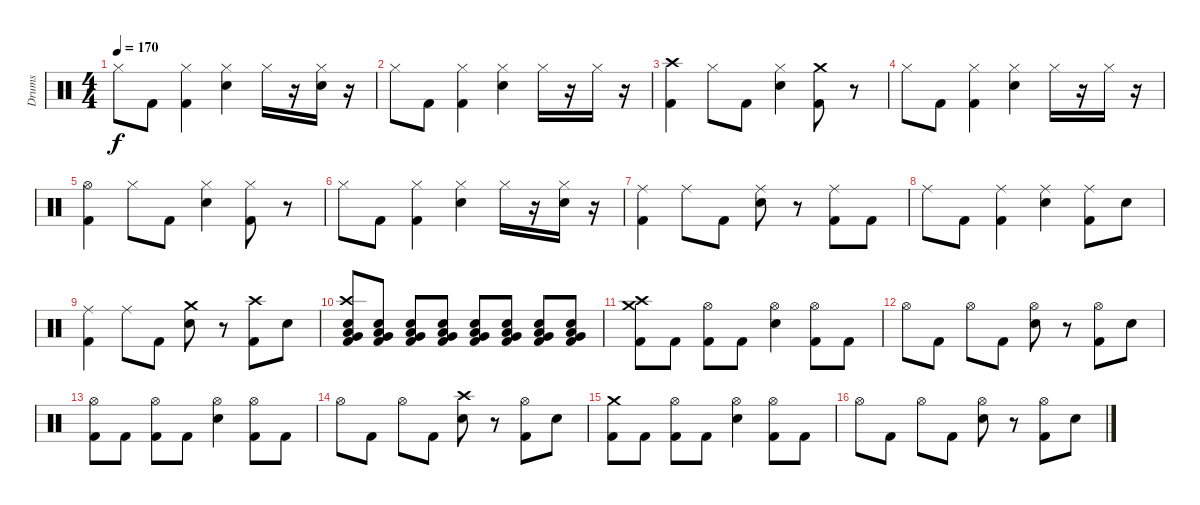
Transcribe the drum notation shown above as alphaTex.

\track ("Drums" "Drums") {instrument percussion}
\staff {score}
\articulation defaults
\ts (4 4)
\tempo 170
\clef neutral
\ks c "Hi-Hat (closed)".8{dy f} "Kick (hit) 2".8
("Hi-Hat (closed)" "Kick (hit) 2").4 ("Hi-Hat (closed)" "Snare (hit) 2").4 "Hi-Hat (closed)".16 r.16 ("Hi-Hat (closed)" "Snare (hit) 2").16 r.16 |
"Hi-Hat (closed)".8 "Kick (hit) 2".8 ("Hi-Hat (closed)" "Kick (hit) 2").4 ("Hi-Hat (closed)" "Snare (hit) 2").4 "Hi-Hat (closed)".16 r.16 "Hi-Hat (closed)".16 r.16 |
("Crash high (hit)" "Kick (hit) 2").4 "Hi-Hat (closed)".8 "Kick (hit) 2".8 ("Hi-Hat (closed)" "Snare (hit) 2").4 ("Crash medium (hit)" "Kick (hit) 2").8 r.8 |
"Hi-Hat (closed)".8 "Kick (hit) 2".8 ("Hi-Hat (closed)" "Kick (hit) 2").4 ("Hi-Hat (closed)" "Snare (hit) 2").4 "Hi-Hat (closed)".16 r.16 "Hi-Hat (closed)".16 r.16 |
("Hi-Hat (open)" "Kick (hit) 2").4 "Hi-Hat (closed)".8 "Kick (hit) 2".8 ("Hi-Hat (closed)" "Snare (hit) 2").4 ("Hi-Hat (closed)" "Kick (hit) 2").8 r.8 |
"Hi-Hat (closed)".8 "Kick (hit) 2".8 ("Hi-Hat (closed)" "Kick (hit) 2").4 ("Hi-Hat (closed)" "Snare (hit) 2").4 "Hi-Hat (closed)".16 r.16 ("Hi-Hat (closed)" "Snare (hit) 2").16 r.16 |
("Ride (middle)" "Kick (hit) 2").4 "Ride (middle)".8 "Kick (hit) 2".8 ("Ride (middle)" "Snare (hit) 2").8 r.8 ("Ride (middle)" "Kick (hit) 2").8 "Kick (hit) 2".8 |
"Ride (middle)".8 "Kick (hit) 2".8 ("Ride (middle)" "Kick (hit) 2").4 ("Ride (middle)" "Snare (hit) 2").4 ("Ride (middle)" "Kick (hit) 2").8 "Snare (hit) 2".8 |
("Ride (middle)" "Kick (hit) 2").4 "Ride (middle)".8 "Kick (hit) 2".8 ("Crash medium (hit)" "Snare (hit) 2").8 r.8 ("Crash high (hit)" "Kick (hit) 2").8 "Snare (hit) 2".8{volume 8} |
("Crash high (hit)" "Very Low Tom (hit)" "Snare (hit) 2" "Low Tom (hit)" "Kick (hit) 2").8{volume 13} ("Very Low Tom (hit)" "Snare (hit) 2" "Low Tom (hit)" "Kick (hit) 2").8 ("Very Low Tom (hit)" "Snare (hit) 2" "Low Tom (hit)" "Kick (hit) 2").8 ("Very Low Tom (hit)" "Snare (hit) 2" "Low Tom (hit)" "Kick (hit) 2").8 ("Very Low Tom (hit)" "Snare (hit) 2" "Low Tom (hit)" "Kick (hit) 2").8 ("Very Low Tom (hit)" "Snare (hit) 2" "Low Tom (hit)" "Kick (hit) 2").8 ("Very Low Tom (hit)" "Snare (hit) 2" "Low Tom (hit)" "Kick (hit) 2").8 ("Very Low Tom (hit)" "Snare (hit) 2" "Low Tom (hit)" "Kick (hit) 2").8 |
("Crash medium (hit)" "Crash high (hit)" "Kick (hit) 2").8{volume 13} "Kick (hit) 2".8 ("Hi-Hat (open)" "Kick (hit) 2").8 "Kick (hit) 2".8 ("Hi-Hat (open)" "Snare (hit) 2").4 ("Hi-Hat (open)" "Kick (hit) 2").8 "Kick (hit) 2".8 |
"Hi-Hat (open)".8 "Kick (hit) 2".8 "Hi-Hat (open)".8 "Kick (hit) 2".8 ("Hi-Hat (open)" "Snare (hit) 2").8 r.8 ("Hi-Hat (open)" "Kick (hit) 2").8 "Snare (hit) 2".8 |
("Hi-Hat (open)" "Kick (hit) 2").8 "Kick (hit) 2".8 ("Hi-Hat (open)" "Kick (hit) 2").8 "Kick (hit) 2".8 ("Hi-Hat (open)" "Snare (hit) 2").4 ("Hi-Hat (open)" "Kick (hit) 2").8 "Kick (hit) 2".8 |
"Hi-Hat (open)".8 "Kick (hit) 2".8 "Hi-Hat (open)".8 "Kick (hit) 2".8 ("Crash high (hit)" "Snare (hit) 2").8 r.8 ("Hi-Hat (open)" "Kick (hit) 2").8 "Snare (hit) 2".8 |
("Crash medium (hit)" "Kick (hit) 2").8 "Kick (hit) 2".8 ("Hi-Hat (open)" "Kick (hit) 2").8 "Kick (hit) 2".8 ("Hi-Hat (open)" "Snare (hit) 2").4 ("Hi-Hat (open)" "Kick (hit) 2").8 "Kick (hit) 2".8 |
"Hi-Hat (open)".8 "Kick (hit) 2".8 "Hi-Hat (open)".8 "Kick (hit) 2".8 ("Hi-Hat (open)" "Snare (hit) 2").8 r.8 ("Hi-Hat (open)" "Kick (hit) 2").8 "Snare (hit) 2".8
